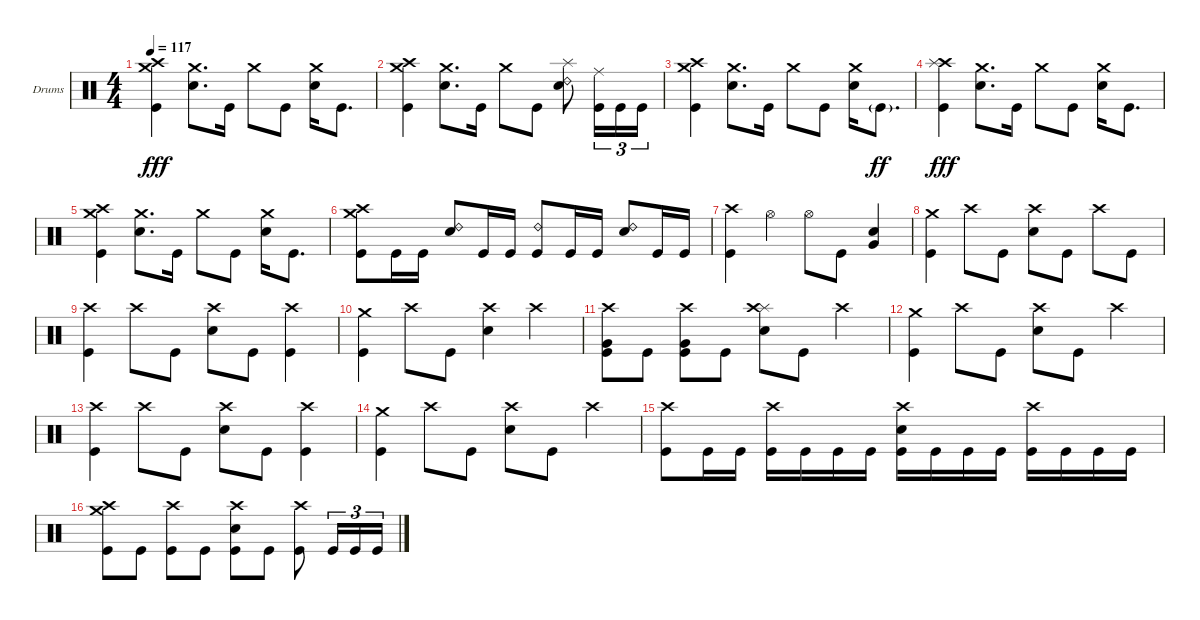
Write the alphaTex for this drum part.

\defaultSystemsLayout 4
\bracketExtendMode groupsimilarinstruments
\firstSystemTrackNameOrientation horizontal
\otherSystemsTrackNameOrientation horizontal
\track ("Drumkit" "Drums") {instrument percussion}
\staff {score}
\articulation defaults
\ts (4 4)
\tempo 117
\clef neutral
\ks c
("Crash high (hit)" "Crash medium (hit)" "Kick (hit)").4{dy fff} ("Crash medium (hit)" "Snare (hit) 2").8{d} "Kick (hit)".16 "Crash medium (hit)".8 "Kick (hit)".8 ("Crash medium (hit)" "Snare (hit) 2").16 "Kick (hit)".8{d} |
("Crash high (hit)" "Crash medium (hit)" "Kick (hit)").4 ("Crash medium (hit)" "Snare (hit) 2").8{d} "Kick (hit)".16 "Crash medium (hit)".8 "Kick (hit)".8 ("Ride (bell) 2" "Splash (hit)" "Snare (hit) 2").8 ("Ride (middle)" "Kick (hit)").16{tu (3 2)} "Kick (hit)".16{tu (3 2)} "Kick (hit)".16{tu (3 2)} |
("Crash high (hit)" "Crash medium (hit)" "Kick (hit)").4 ("Crash medium (hit)" "Snare (hit) 2").8{d} "Kick (hit)".16 "Crash medium (hit)".8 "Kick (hit)".8 ("Crash medium (hit)" "Snare (hit) 2").16 "Kick (hit)"{g}.8{d dy ff} |
("Crash high (hit)" "Splash (hit)" "Kick (hit)").4{dy fff} ("Crash medium (hit)" "Snare (hit) 2").8{d} "Kick (hit)".16 "Crash medium (hit)".8 "Kick (hit)".8 ("Crash medium (hit)" "Snare (hit) 2").16 "Kick (hit)".8{d} |
("Crash high (hit)" "Crash medium (hit)" "Kick (hit)").4 ("Crash medium (hit)" "Snare (hit) 2").8{d} "Kick (hit)".16 "Crash medium (hit)".8 "Kick (hit)".8 ("Crash medium (hit)" "Snare (hit) 2").16 "Kick (hit)".8{d} |
("Crash high (hit)" "Crash medium (hit)" "Kick (hit)").8 "Kick (hit)".16 "Kick (hit)".16 ("Ride (bell) 2" "Snare (hit) 2").8 "Kick (hit)".16 "Kick (hit)".16 ("Ride (bell) 2" "Kick (hit)").8 "Kick (hit)".16 "Kick (hit)".16 ("Ride (bell) 2" "Snare (hit) 2").8 "Kick (hit)".16 "Kick (hit)".16 |
("Crash high (hit)" "Kick (hit)").4 "Hi-Hat (open)".4 "Hi-Hat (open)".8 "Kick (hit)".8 ("Very Low Tom (hit)" "Snare (hit) 2").4 |
("Crash medium (hit)" "Kick (hit)").4 "Crash high (hit)".8 "Kick (hit)".8 ("Crash high (hit)" "Snare (hit) 2").8 "Kick (hit)".8 "Crash high (hit)".8 "Kick (hit)".8 |
("Crash high (hit)" "Kick (hit)").4 "Crash high (hit)".8 "Kick (hit)".8 ("Crash high (hit)" "Snare (hit) 2").8 "Kick (hit)".8 ("Crash high (hit)" "Kick (hit)").4 |
("Crash medium (hit)" "Kick (hit)").4 "Crash high (hit)".8 "Kick (hit)".8 ("Crash high (hit)" "Snare (hit) 2").4 "Crash high (hit)".4 |
("Crash high (hit)" "Very Low Tom (hit)" "Kick (hit)").8 "Kick (hit)".8 ("Crash high (hit)" "Very Low Tom (hit)" "Kick (hit)").8 "Kick (hit)".8 ("Splash (hit)" "Crash high (hit)" "Snare (hit) 2").8 "Kick (hit)".8 "Crash high (hit)".4 |
("Crash medium (hit)" "Kick (hit)").4 "Crash high (hit)".8 "Kick (hit)".8 ("Crash high (hit)" "Snare (hit) 2").8 "Kick (hit)".8 "Crash high (hit)".4 |
("Crash high (hit)" "Kick (hit)").4 "Crash high (hit)".8 "Kick (hit)".8 ("Crash high (hit)" "Snare (hit) 2").8 "Kick (hit)".8 ("Crash high (hit)" "Kick (hit)").4 |
("Crash medium (hit)" "Kick (hit)").4 "Crash high (hit)".8 "Kick (hit)".8 ("Crash high (hit)" "Snare (hit) 2").8 "Kick (hit)".8 "Crash high (hit)".4 |
("Crash high (hit)" "Kick (hit)").8 "Kick (hit)".16 "Kick (hit)".16 ("Crash high (hit)" "Kick (hit)").16 "Kick (hit)".16 "Kick (hit)".16 "Kick (hit)".16 ("Crash high (hit)" "Snare (hit) 2" "Kick (hit)").16 "Kick (hit)".16 "Kick (hit)".16 "Kick (hit)".16 ("Crash high (hit)" "Kick (hit)").16 "Kick (hit)".16 "Kick (hit)".16 "Kick (hit)".16 |
("Crash high (hit)" "Crash medium (hit)" "Kick (hit)").8 "Kick (hit)".8 ("Crash high (hit)" "Kick (hit)").8 "Kick (hit)".8 ("Crash high (hit)" "Snare (hit) 2" "Kick (hit)").8 "Kick (hit)".8 ("Crash high (hit)" "Kick (hit)").8 "Kick (hit)".16{tu (3 2)} "Kick (hit)".16{tu (3 2)} "Kick (hit)".16{tu (3 2)}
